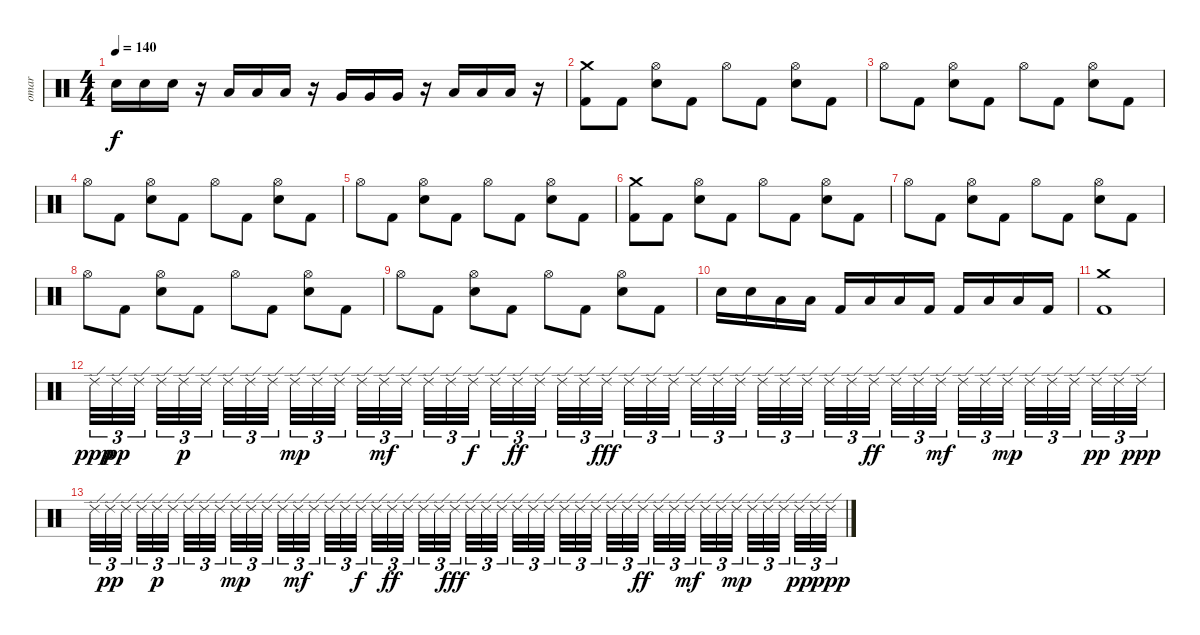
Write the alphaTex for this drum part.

\track ("omar" "omar") {instrument percussion}
\staff {score}
\articulation defaults
\ts (4 4)
\tempo 140
\clef neutral
\ks c "Electric Snare (hit)".16{dy f} "Electric Snare (hit)".16 "Electric Snare (hit)".16
r.16 "Low Tom (hit)".16 "Low Tom (hit)".16 "Low Tom (hit)".16 r.16 "Very Low Tom (hit)".16 "Very Low Tom (hit)".16 "Very Low Tom (hit)".16 r.16 "Low Floor Tom (hit)".16 "Low Floor Tom (hit)".16 "Low Floor Tom (hit)".16 r.16 |
("Crash medium (hit)" "Kick (hit) 2").8 "Kick (hit) 2".8 ("Hi-Hat (open)" "Electric Snare (hit)").8 "Kick (hit) 2".8 "Hi-Hat (open)".8 "Kick (hit) 2".8 ("Hi-Hat (open)" "Electric Snare (hit)").8 "Kick (hit) 2".8 |
"Hi-Hat (open)".8 "Kick (hit) 2".8 ("Hi-Hat (open)" "Electric Snare (hit)").8 "Kick (hit) 2".8 "Hi-Hat (open)".8 "Kick (hit) 2".8 ("Hi-Hat (open)" "Electric Snare (hit)").8 "Kick (hit) 2".8 |
"Hi-Hat (open)".8 "Kick (hit) 2".8 ("Hi-Hat (open)" "Electric Snare (hit)").8 "Kick (hit) 2".8 "Hi-Hat (open)".8 "Kick (hit) 2".8 ("Hi-Hat (open)" "Electric Snare (hit)").8 "Kick (hit) 2".8 |
"Hi-Hat (open)".8 "Kick (hit) 2".8 ("Hi-Hat (open)" "Electric Snare (hit)").8 "Kick (hit) 2".8 "Hi-Hat (open)".8 "Kick (hit) 2".8 ("Hi-Hat (open)" "Electric Snare (hit)").8 "Kick (hit) 2".8 |
("Crash medium (hit)" "Kick (hit) 2").8 "Kick (hit) 2".8 ("Hi-Hat (open)" "Electric Snare (hit)").8 "Kick (hit) 2".8 "Hi-Hat (open)".8 "Kick (hit) 2".8 ("Hi-Hat (open)" "Electric Snare (hit)").8 "Kick (hit) 2".8 |
"Hi-Hat (open)".8 "Kick (hit) 2".8 ("Hi-Hat (open)" "Electric Snare (hit)").8 "Kick (hit) 2".8 "Hi-Hat (open)".8 "Kick (hit) 2".8 ("Hi-Hat (open)" "Electric Snare (hit)").8 "Kick (hit) 2".8 |
"Hi-Hat (open)".8 "Kick (hit) 2".8 ("Hi-Hat (open)" "Electric Snare (hit)").8 "Kick (hit) 2".8 "Hi-Hat (open)".8 "Kick (hit) 2".8 ("Hi-Hat (open)" "Electric Snare (hit)").8 "Kick (hit) 2".8 |
"Hi-Hat (open)".8 "Kick (hit) 2".8 ("Hi-Hat (open)" "Electric Snare (hit)").8 "Kick (hit) 2".8 "Hi-Hat (open)".8 "Kick (hit) 2".8 ("Hi-Hat (open)" "Electric Snare (hit)").8 "Kick (hit) 2".8 |
"Electric Snare (hit)".16 "Electric Snare (hit)".16 "Low Tom (hit)".16 "Low Tom (hit)".16 "Kick (hit) 2".16 "Low Tom (hit)".16 "Low Tom (hit)".16 "Kick (hit) 2".16 "Kick (hit) 2".16 "Low Tom (hit)".16 "Low Tom (hit)".16 "Kick (hit) 2".16 |
("Crash medium (hit)" "Kick (hit) 2").1 |
"Ride (edge) 2".32{tu (3 2) dy ppp} "Ride (edge) 2".32{tu (3 2) dy pp} "Ride (edge) 2".32{tu (3 2) beam splitsecondary} "Ride (edge) 2".32{tu (3 2)} "Ride (edge) 2".32{tu (3 2) dy p} "Ride (edge) 2".32{tu (3 2) beam splitsecondary} "Ride (edge) 2".32{tu (3 2)} "Ride (edge) 2".32{tu (3 2)} "Ride (edge) 2".32{tu (3 2) beam splitsecondary} "Ride (edge) 2".32{tu (3 2) dy mp} "Ride (edge) 2".32{tu (3 2)} "Ride (edge) 2".32{tu (3 2)} "Ride (edge) 2".32{tu (3 2)} "Ride (edge) 2".32{tu (3 2) dy mf} "Ride (edge) 2".32{tu (3 2) beam splitsecondary} "Ride (edge) 2".32{tu (3 2)} "Ride (edge) 2".32{tu (3 2)} "Ride (edge) 2".32{tu (3 2) dy f beam splitsecondary} "Ride (edge) 2".32{tu (3 2)} "Ride (edge) 2".32{tu (3 2) dy ff} "Ride (edge) 2".32{tu (3 2) beam splitsecondary} "Ride (edge) 2".32{tu (3 2)} "Ride (edge) 2".32{tu (3 2)} "Ride (edge) 2".32{tu (3 2) dy fff} "Ride (edge) 2".32{tu (3 2)} "Ride (edge) 2".32{tu (3 2)} "Ride (edge) 2".32{tu (3 2) beam splitsecondary} "Ride (edge) 2".32{tu (3 2)} "Ride (edge) 2".32{tu (3 2)} "Ride (edge) 2".32{tu (3 2) beam splitsecondary} "Ride (edge) 2".32{tu (3 2)} "Ride (edge) 2".32{tu (3 2)} "Ride (edge) 2".32{tu (3 2) beam splitsecondary} "Ride (edge) 2".32{tu (3 2)} "Ride (edge) 2".32{tu (3 2)} "Ride (edge) 2".32{tu (3 2) dy ff} "Ride (edge) 2".32{tu (3 2)} "Ride (edge) 2".32{tu (3 2)} "Ride (edge) 2".32{tu (3 2) dy mf beam splitsecondary} "Ride (edge) 2".32{tu (3 2)} "Ride (edge) 2".32{tu (3 2)} "Ride (edge) 2".32{tu (3 2) dy mp beam splitsecondary} "Ride (edge) 2".32{tu (3 2)} "Ride (edge) 2".32{tu (3 2)} "Ride (edge) 2".32{tu (3 2) beam splitsecondary} "Ride (edge) 2".32{tu (3 2) dy pp} "Ride (edge) 2".32{tu (3 2)} "Ride (edge) 2".32{tu (3 2) dy ppp} |
"Ride (edge) 2".32{tu (3 2)} "Ride (edge) 2".32{tu (3 2) dy pp} "Ride (edge) 2".32{tu (3 2) beam splitsecondary} "Ride (edge) 2".32{tu (3 2)} "Ride (edge) 2".32{tu (3 2) dy p} "Ride (edge) 2".32{tu (3 2) beam splitsecondary} "Ride (edge) 2".32{tu (3 2)} "Ride (edge) 2".32{tu (3 2)} "Ride (edge) 2".32{tu (3 2) beam splitsecondary} "Ride (edge) 2".32{tu (3 2) dy mp} "Ride (edge) 2".32{tu (3 2)} "Ride (edge) 2".32{tu (3 2)} "Ride (edge) 2".32{tu (3 2)} "Ride (edge) 2".32{tu (3 2) dy mf} "Ride (edge) 2".32{tu (3 2) beam splitsecondary} "Ride (edge) 2".32{tu (3 2)} "Ride (edge) 2".32{tu (3 2)} "Ride (edge) 2".32{tu (3 2) dy f beam splitsecondary} "Ride (edge) 2".32{tu (3 2)} "Ride (edge) 2".32{tu (3 2) dy ff} "Ride (edge) 2".32{tu (3 2) beam splitsecondary} "Ride (edge) 2".32{tu (3 2)} "Ride (edge) 2".32{tu (3 2)} "Ride (edge) 2".32{tu (3 2) dy fff} "Ride (edge) 2".32{tu (3 2)} "Ride (edge) 2".32{tu (3 2)} "Ride (edge) 2".32{tu (3 2) beam splitsecondary} "Ride (edge) 2".32{tu (3 2)} "Ride (edge) 2".32{tu (3 2)} "Ride (edge) 2".32{tu (3 2) beam splitsecondary} "Ride (edge) 2".32{tu (3 2)} "Ride (edge) 2".32{tu (3 2)} "Ride (edge) 2".32{tu (3 2) beam splitsecondary} "Ride (edge) 2".32{tu (3 2)} "Ride (edge) 2".32{tu (3 2)} "Ride (edge) 2".32{tu (3 2) dy ff} "Ride (edge) 2".32{tu (3 2)} "Ride (edge) 2".32{tu (3 2)} "Ride (edge) 2".32{tu (3 2) dy mf beam splitsecondary} "Ride (edge) 2".32{tu (3 2)} "Ride (edge) 2".32{tu (3 2)} "Ride (edge) 2".32{tu (3 2) dy mp beam splitsecondary} "Ride (edge) 2".32{tu (3 2)} "Ride (edge) 2".32{tu (3 2)} "Ride (edge) 2".32{tu (3 2) beam splitsecondary} "Ride (edge) 2".32{tu (3 2) dy pp} "Ride (edge) 2".32{tu (3 2)} "Ride (edge) 2".32{tu (3 2) dy ppp}
